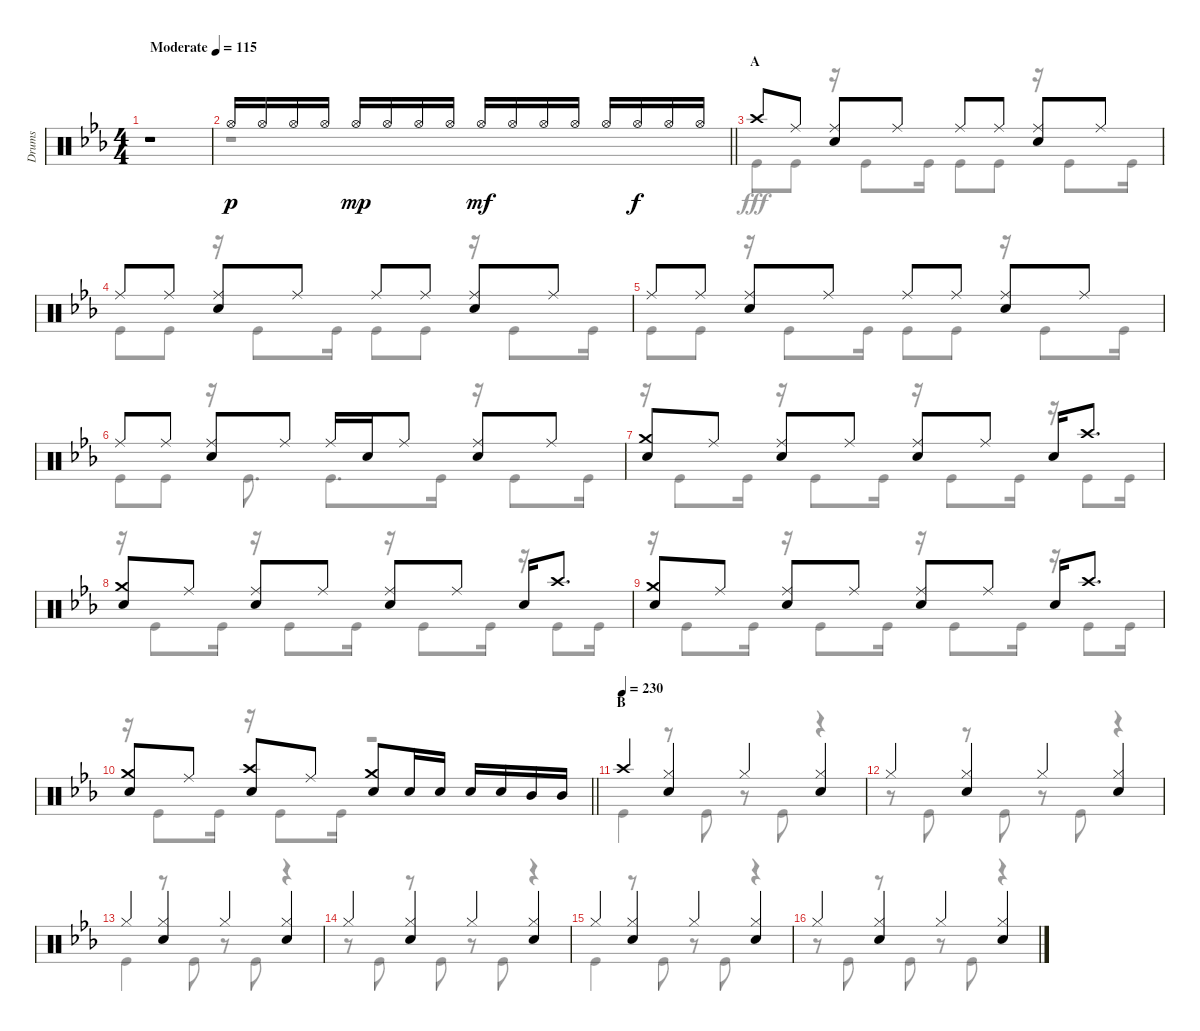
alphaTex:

\track ("Drums" "Drums") {instrument percussion}
\staff {score}
\articulation defaults
\voice
\ts (4 4)
\tempo (115 "Moderate")
\clef neutral
\ks eb
r.1{dy p} |
\barLineRight lightlight "Hi-Hat (open)".16 "Hi-Hat (open)".16 "Hi-Hat (open)".16 "Hi-Hat (open)".16 "Hi-Hat (open)".16{dy mp} "Hi-Hat (open)".16 "Hi-Hat (open)".16 "Hi-Hat (open)".16 "Hi-Hat (open)".16{dy mf} "Hi-Hat (open)".16 "Hi-Hat (open)".16 "Hi-Hat (open)".16 "Hi-Hat (open)".16 "Hi-Hat (open)".16{dy f} "Hi-Hat (open)".16 "Hi-Hat (open)".16
|
\section ("" "A")
"Crash high (hit)".8 "Ride (middle)".8 ("Ride (middle)" "Snare (hit) 2").8 "Ride (middle)".8 "Ride (middle)".8 "Ride (middle)".8 ("Ride (middle)" "Snare (hit) 2").8 "Ride (middle)".8 |
"Ride (middle)".8 "Ride (middle)".8 ("Ride (middle)" "Snare (hit) 2").8 "Ride (middle)".8 "Ride (middle)".8 "Ride (middle)".8 ("Ride (middle)" "Snare (hit) 2").8 "Ride (middle)".8 |
"Ride (middle)".8 "Ride (middle)".8 ("Ride (middle)" "Snare (hit) 2").8 "Ride (middle)".8 "Ride (middle)".8 "Ride (middle)".8 ("Ride (middle)" "Snare (hit) 2").8 "Ride (middle)".8 |
"Ride (middle)".8 "Ride (middle)".8 ("Ride (middle)" "Snare (hit) 2").8 "Ride (middle)".8 "Ride (middle)".16 "Snare (hit) 2".16 "Ride (middle)".8 ("Ride (middle)" "Snare (hit) 2").8 "Ride (middle)".8 |
("Crash medium (hit)" "Snare (hit) 2").8 "Ride (middle)".8 ("Ride (middle)" "Snare (hit) 2").8 "Ride (middle)".8 ("Ride (middle)" "Snare (hit) 2").8 "Ride (middle)".8 "Snare (hit) 2".16 "Crash high (hit)".8{d} |
("Crash medium (hit)" "Snare (hit) 2").8 "Ride (middle)".8 ("Ride (middle)" "Snare (hit) 2").8 "Ride (middle)".8 ("Ride (middle)" "Snare (hit) 2").8 "Ride (middle)".8 "Snare (hit) 2".16 "Crash high (hit)".8{d} |
("Crash medium (hit)" "Snare (hit) 2").8 "Ride (middle)".8 ("Ride (middle)" "Snare (hit) 2").8 "Ride (middle)".8 ("Ride (middle)" "Snare (hit) 2").8 "Ride (middle)".8 "Snare (hit) 2".16 "Crash high (hit)".8{d} |
\barLineRight lightlight
("Crash medium (hit)" "Snare (hit) 2").8 "Ride (middle)".8 ("Crash high (hit)" "Snare (hit) 2").8 "Ride (middle)".8 ("Crash medium (hit)" "Snare (hit) 2").8 "Snare (hit) 2".16 "Snare (hit) 2".16 "Snare (hit) 2".16 "Snare (hit) 2".16 "Mid Tom (hit)".16 "Mid Tom (hit)".16 |
\section ("" "B")
\tempo (230)
"Crash high (hit)".4 ("Hi-Hat (closed)" "Snare (hit) 2").4 "Hi-Hat (closed)".4 ("Hi-Hat (closed)" "Snare (hit) 2").4 |
"Hi-Hat (closed)".4 ("Hi-Hat (closed)" "Snare (hit) 2").4 "Hi-Hat (closed)".4 ("Hi-Hat (closed)" "Snare (hit) 2").4 |
"Hi-Hat (closed)".4 ("Hi-Hat (closed)" "Snare (hit) 2").4 "Hi-Hat (closed)".4 ("Hi-Hat (closed)" "Snare (hit) 2").4 |
"Hi-Hat (closed)".4 ("Hi-Hat (closed)" "Snare (hit) 2").4 "Hi-Hat (closed)".4 ("Hi-Hat (closed)" "Snare (hit) 2").4 |
"Hi-Hat (closed)".4 ("Hi-Hat (closed)" "Snare (hit) 2").4 "Hi-Hat (closed)".4 ("Hi-Hat (closed)" "Snare (hit) 2").4 |
"Hi-Hat (closed)".4 ("Hi-Hat (closed)" "Snare (hit) 2").4 "Hi-Hat (closed)".4 ("Hi-Hat (closed)" "Snare (hit) 2").4
\voice
\clef neutral
\ottava regular
\simile none
\ks eb
r.1{dy fff} |
\barLineRight lightlight
r.1 |
"Kick (hit)".8 "Kick (hit)".8 r.16 "Kick (hit)".8 "Kick (hit)".16 "Kick (hit)".8 "Kick (hit)".8 r.16 "Kick (hit)".8 "Kick (hit)".16 |
"Kick (hit)".8 "Kick (hit)".8 r.16 "Kick (hit)".8 "Kick (hit)".16 "Kick (hit)".8 "Kick (hit)".8 r.16 "Kick (hit)".8 "Kick (hit)".16 |
"Kick (hit)".8 "Kick (hit)".8 r.16 "Kick (hit)".8 "Kick (hit)".16 "Kick (hit)".8 "Kick (hit)".8 r.16 "Kick (hit)".8 "Kick (hit)".16 |
"Kick (hit)".8 "Kick (hit)".8 r.16 "Kick (hit)".8{d} "Kick (hit)".8{d} "Kick (hit)".16 r.16 "Kick (hit)".8 "Kick (hit)".16 |
r.16 "Kick (hit)".8 "Kick (hit)".16 r.16 "Kick (hit)".8 "Kick (hit)".16 r.16 "Kick (hit)".8 "Kick (hit)".16 r.16 "Kick (hit)".8 "Kick (hit)".16 |
r.16 "Kick (hit)".8 "Kick (hit)".16 r.16 "Kick (hit)".8 "Kick (hit)".16 r.16 "Kick (hit)".8 "Kick (hit)".16 r.16 "Kick (hit)".8 "Kick (hit)".16 |
r.16 "Kick (hit)".8 "Kick (hit)".16 r.16 "Kick (hit)".8 "Kick (hit)".16 r.16 "Kick (hit)".8 "Kick (hit)".16 r.16 "Kick (hit)".8 "Kick (hit)".16 |
\barLineRight lightlight
r.16 "Kick (hit)".8 "Kick (hit)".16 r.16 "Kick (hit)".8 "Kick (hit)".16 r.2 |
"Kick (hit)".4 r.8 "Kick (hit)".8 r.8 "Kick (hit)".8 r.4 |
r.8 "Kick (hit)".8 r.8 "Kick (hit)".8 r.8 "Kick (hit)".8 r.4 |
"Kick (hit)".4 r.8 "Kick (hit)".8 r.8 "Kick (hit)".8 r.4 |
r.8 "Kick (hit)".8 r.8 "Kick (hit)".8 r.8 "Kick (hit)".8 r.4 |
"Kick (hit)".4 r.8 "Kick (hit)".8 r.8 "Kick (hit)".8 r.4 |
r.8 "Kick (hit)".8 r.8 "Kick (hit)".8 r.8 "Kick (hit)".8 r.4
